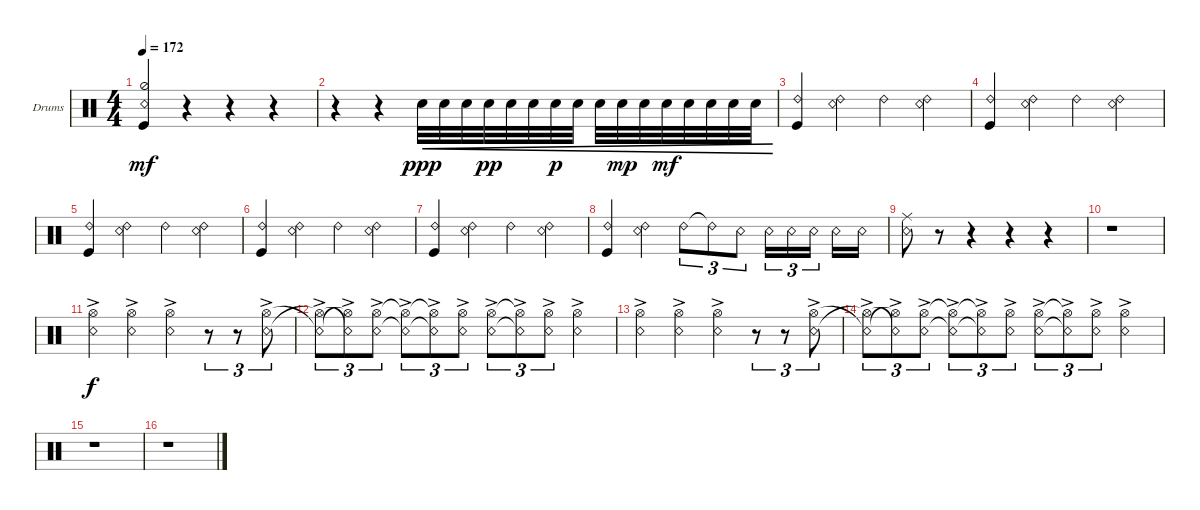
\defaultSystemsLayout 4
\bracketExtendMode groupsimilarinstruments
\firstSystemTrackNameOrientation horizontal
\otherSystemsTrackNameOrientation horizontal
\track ("Drums" "Drums") {instrument percussion}
\staff {score}
\articulation defaults
\ts (4 4)
\tempo 172
\clef neutral
\scale
0.333333
\ks c
("Snare (rim shot)" "Hi-Hat (half)" "Kick (hit)").4{dy mf} r.4 r.4 r.4 |
\scale
0.333333 r.4 r.4 "Snare (hit) 2".32{cre dy ppp} "Snare (hit) 2".32{cre} "Snare (hit) 2".32{cre} "Snare (hit) 2".32{cre dy pp} "Snare (hit) 2".32{cre} "Snare (hit) 2".32{cre} "Snare (hit) 2".32{cre dy p} "Snare (hit) 2".32{cre} "Snare (hit) 2".32{cre} "Snare (hit) 2".32{cre dy mp} "Snare (hit) 2".32{cre} "Snare (hit) 2".32{cre dy mf} "Snare (hit) 2".32{cre} "Snare (hit) 2".32{cre} "Snare (hit) 2".32{cre} "Snare (hit) 2".32{cre} |
\scale
0.333333 ("Ride (bell) 2" "Kick (hit)").4 ("Ride (bell) 2" "Snare (rim shot)").4 "Ride (bell) 2".4 ("Snare (rim shot)" "Ride (bell) 2").4 |
\scale
0.333333 ("Ride (bell) 2" "Kick (hit)").4 ("Ride (bell) 2" "Snare (rim shot)").4 "Ride (bell) 2".4 ("Snare (rim shot)" "Ride (bell) 2").4 |
\scale
0.333333 ("Ride (bell) 2" "Kick (hit)").4 ("Ride (bell) 2" "Snare (rim shot)").4 "Ride (bell) 2".4 ("Snare (rim shot)" "Ride (bell) 2").4 |
\scale
0.333333 ("Ride (bell) 2" "Kick (hit)").4 ("Ride (bell) 2" "Snare (rim shot)").4 "Ride (bell) 2".4 ("Snare (rim shot)" "Ride (bell) 2").4 |
\scale
0.333333 ("Ride (bell) 2" "Kick (hit)").4 ("Ride (bell) 2" "Snare (rim shot)").4 "Ride (bell) 2".4 ("Snare (rim shot)" "Ride (bell) 2").4 |
\scale
0.333333 ("Ride (bell) 2" "Kick (hit)").4 ("Ride (bell) 2" "Snare (rim shot)").4 "Ride (bell) 2".8{tu (3 2)} "Ride (bell) 2"{t}.8{tu (3 2)} "Snare (rim shot)".8{tu (3 2)} "Snare (rim shot)".16{tu (3 2)} "Snare (rim shot)".16{tu (3 2)} "Snare (rim shot)".16{tu (3 2)} "Snare (rim shot)".16 "Snare (rim shot)".16 |
\scale
0.333333 ("Snare (rim shot)" "Ride (middle)").8 r.8 r.4 r.4 r.4 |
\scale
0.333333 r.1 |
\scale
0.333333 ("Hi-Hat (open)"{ac} "Snare (rim shot)"{ac}).4{dy f} ("Hi-Hat (open)"{ac} "Snare (rim shot)"{ac}).4 ("Hi-Hat (open)"{ac} "Snare (rim shot)"{ac}).4 r.8{tu (3 2)} r.8{tu (3 2)} ("Snare (rim shot)"{ac} "Hi-Hat (open)"{ac}).8{tu (3 2)} |
\scale
0.333333 ("Hi-Hat (open)"{ac t} "Snare (rim shot)"{ac t}).8{tu (3 2)} ("Snare (rim shot)"{ac t} "Hi-Hat (open)"{ac t}).8{tu (3 2)} ("Hi-Hat (open)"{ac} "Snare (rim shot)"{ac}).8{tu (3 2)} ("Hi-Hat (open)"{ac t} "Snare (rim shot)"{ac t}).8{tu (3 2)} ("Hi-Hat (open)"{ac t} "Snare (rim shot)"{ac t}).8{tu (3 2)} ("Hi-Hat (open)"{ac} "Snare (rim shot)"{ac}).8{tu (3 2)} ("Snare (rim shot)"{ac} "Hi-Hat (open)"{ac}).8{tu (3 2)} ("Snare (rim shot)"{ac t} "Hi-Hat (open)"{ac t}).8{tu (3 2)} ("Snare (rim shot)"{ac} "Hi-Hat (open)"{ac}).8{tu (3 2)} ("Hi-Hat (open)"{ac} "Snare (rim shot)"{ac}).4 |
\scale
0.333333 ("Hi-Hat (open)"{ac} "Snare (rim shot)"{ac}).4 ("Hi-Hat (open)"{ac} "Snare (rim shot)"{ac}).4 ("Hi-Hat (open)"{ac} "Snare (rim shot)"{ac}).4 r.8{tu (3 2)} r.8{tu (3 2)} ("Snare (rim shot)"{ac} "Hi-Hat (open)"{ac}).8{tu (3 2)} |
\scale
0.333333 ("Hi-Hat (open)"{ac t} "Snare (rim shot)"{ac t}).8{tu (3 2)} ("Snare (rim shot)"{ac t} "Hi-Hat (open)"{ac t}).8{tu (3 2)} ("Hi-Hat (open)"{ac} "Snare (rim shot)"{ac}).8{tu (3 2)} ("Hi-Hat (open)"{ac t} "Snare (rim shot)"{ac t}).8{tu (3 2)} ("Hi-Hat (open)"{ac t} "Snare (rim shot)"{ac t}).8{tu (3 2)} ("Hi-Hat (open)"{ac} "Snare (rim shot)"{ac}).8{tu (3 2)} ("Snare (rim shot)"{ac} "Hi-Hat (open)"{ac}).8{tu (3 2)} ("Snare (rim shot)"{ac t} "Hi-Hat (open)"{ac t}).8{tu (3 2)} ("Snare (rim shot)"{ac} "Hi-Hat (open)"{ac}).8{tu (3 2)} ("Hi-Hat (open)"{ac} "Snare (rim shot)"{ac}).4 |
\scale
0.333333 r.1 |
\scale
0.333333 r.1
